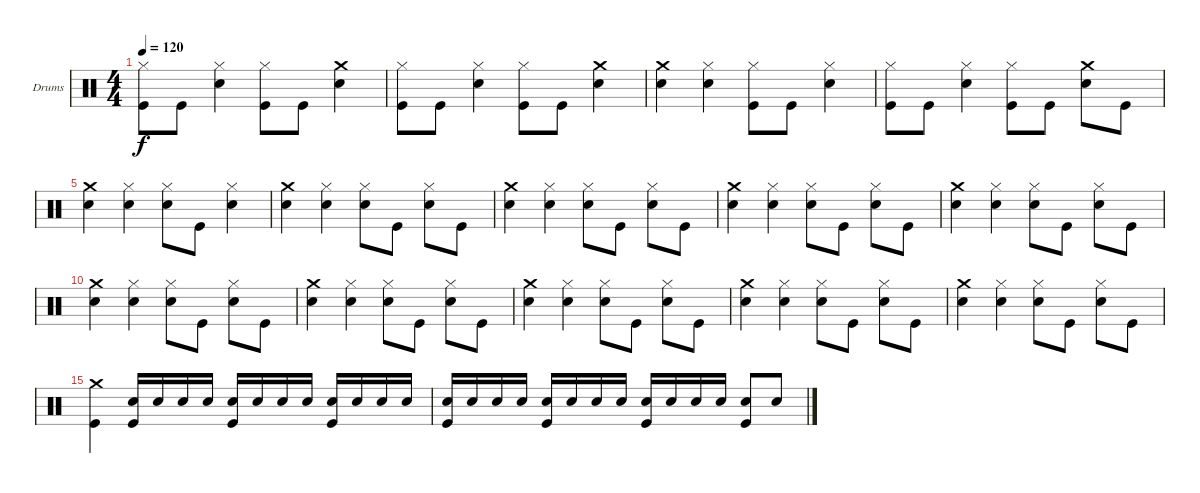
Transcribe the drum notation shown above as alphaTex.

\bracketExtendMode nobrackets
\firstSystemTrackNameOrientation horizontal
\otherSystemsTrackNameOrientation horizontal
\defaultBarNumberDisplay FirstOfSystem
\track ("Drumkit" "Drums") {instrument percussion}
\staff {score}
\articulation defaults
\ts (4 4)
\tempo 120
\clef neutral
\scale
0.25
\ks c
("Hi-Hat (closed)" "Kick (hit)").8{dy f} "Kick (hit)".8 ("Hi-Hat (closed)" "Snare (hit) 2").4 ("Hi-Hat (closed)" "Kick (hit)").8 "Kick (hit)".8 ("Crash medium (hit)" "Snare (hit) 2").4 |
\scale
0.25 ("Hi-Hat (closed)" "Kick (hit)").8 "Kick (hit)".8 ("Hi-Hat (closed)" "Snare (hit) 2").4 ("Hi-Hat (closed)" "Kick (hit)").8 "Kick (hit)".8 ("Crash medium (hit)" "Snare (hit) 2").4 |
\scale
0.236364 ("Crash medium (hit)" "Snare (hit) 2").4 ("Hi-Hat (closed)" "Snare (hit) 2").4 ("Hi-Hat (closed)" "Kick (hit)").8 "Kick (hit)".8 ("Hi-Hat (closed)" "Snare (hit) 2").4 |
\scale
0.272727 ("Hi-Hat (closed)" "Kick (hit)").8 "Kick (hit)".8 ("Hi-Hat (closed)" "Snare (hit) 2").4 ("Hi-Hat (closed)" "Kick (hit)").8 "Kick (hit)".8 ("Crash medium (hit)" "Snare (hit) 2").8 "Kick (hit)".8 |
\scale
0.236364 ("Crash medium (hit)" "Snare (hit) 2").4 ("Hi-Hat (closed)" "Snare (hit) 2").4 ("Hi-Hat (closed)" "Snare (hit) 2").8 "Kick (hit)".8 ("Hi-Hat (closed)" "Snare (hit) 2").4 |
\scale
0.254545 ("Crash medium (hit)" "Snare (hit) 2").4 ("Hi-Hat (closed)" "Snare (hit) 2").4 ("Hi-Hat (closed)" "Snare (hit) 2").8 "Kick (hit)".8 ("Hi-Hat (closed)" "Snare (hit) 2").8 "Kick (hit)".8 |
\scale
0.25 ("Crash medium (hit)" "Snare (hit) 2").4 ("Hi-Hat (closed)" "Snare (hit) 2").4 ("Hi-Hat (closed)" "Snare (hit) 2").8 "Kick (hit)".8 ("Hi-Hat (closed)" "Snare (hit) 2").8 "Kick (hit)".8 |
\scale
0.25 ("Crash medium (hit)" "Snare (hit) 2").4 ("Hi-Hat (closed)" "Snare (hit) 2").4 ("Hi-Hat (closed)" "Snare (hit) 2").8 "Kick (hit)".8 ("Hi-Hat (closed)" "Snare (hit) 2").8 "Kick (hit)".8 |
\scale
0.25 ("Crash medium (hit)" "Snare (hit) 2").4 ("Hi-Hat (closed)" "Snare (hit) 2").4 ("Hi-Hat (closed)" "Snare (hit) 2").8 "Kick (hit)".8 ("Hi-Hat (closed)" "Snare (hit) 2").8 "Kick (hit)".8 |
\scale
0.25 ("Crash medium (hit)" "Snare (hit) 2").4 ("Hi-Hat (closed)" "Snare (hit) 2").4 ("Hi-Hat (closed)" "Snare (hit) 2").8 "Kick (hit)".8 ("Hi-Hat (closed)" "Snare (hit) 2").8 "Kick (hit)".8 |
\scale
0.25 ("Crash medium (hit)" "Snare (hit) 2").4 ("Hi-Hat (closed)" "Snare (hit) 2").4 ("Hi-Hat (closed)" "Snare (hit) 2").8 "Kick (hit)".8 ("Hi-Hat (closed)" "Snare (hit) 2").8 "Kick (hit)".8 |
\scale
0.25 ("Crash medium (hit)" "Snare (hit) 2").4 ("Hi-Hat (closed)" "Snare (hit) 2").4 ("Hi-Hat (closed)" "Snare (hit) 2").8 "Kick (hit)".8 ("Hi-Hat (closed)" "Snare (hit) 2").8 "Kick (hit)".8 |
\scale
0.25 ("Crash medium (hit)" "Snare (hit) 2").4 ("Hi-Hat (closed)" "Snare (hit) 2").4 ("Hi-Hat (closed)" "Snare (hit) 2").8 "Kick (hit)".8 ("Hi-Hat (closed)" "Snare (hit) 2").8 "Kick (hit)".8 |
\scale
0.25 ("Crash medium (hit)" "Snare (hit) 2").4 ("Hi-Hat (closed)" "Snare (hit) 2").4 ("Hi-Hat (closed)" "Snare (hit) 2").8 "Kick (hit)".8 ("Hi-Hat (closed)" "Snare (hit) 2").8 "Kick (hit)".8 |
\scale
0.282051 ("Crash medium (hit)" "Kick (hit)").4 ("Snare (hit) 2" "Kick (hit)").16 "Snare (hit) 2".16 "Snare (hit) 2".16 "Snare (hit) 2".16 ("Snare (hit) 2" "Kick (hit)").16 "Snare (hit) 2".16 "Snare (hit) 2".16 "Snare (hit) 2".16 ("Snare (hit) 2" "Kick (hit)").16 "Snare (hit) 2".16 "Snare (hit) 2".16 "Snare (hit) 2".16 |
\scale
0.294872 ("Snare (hit) 2" "Kick (hit)").16 "Snare (hit) 2".16 "Snare (hit) 2".16 "Snare (hit) 2".16 ("Snare (hit) 2" "Kick (hit)").16 "Snare (hit) 2".16 "Snare (hit) 2".16 "Snare (hit) 2".16 ("Snare (hit) 2" "Kick (hit)").16 "Snare (hit) 2".16 "Snare (hit) 2".16 "Snare (hit) 2".16 ("Snare (hit) 2" "Kick (hit)").8 "Snare (hit) 2".8
